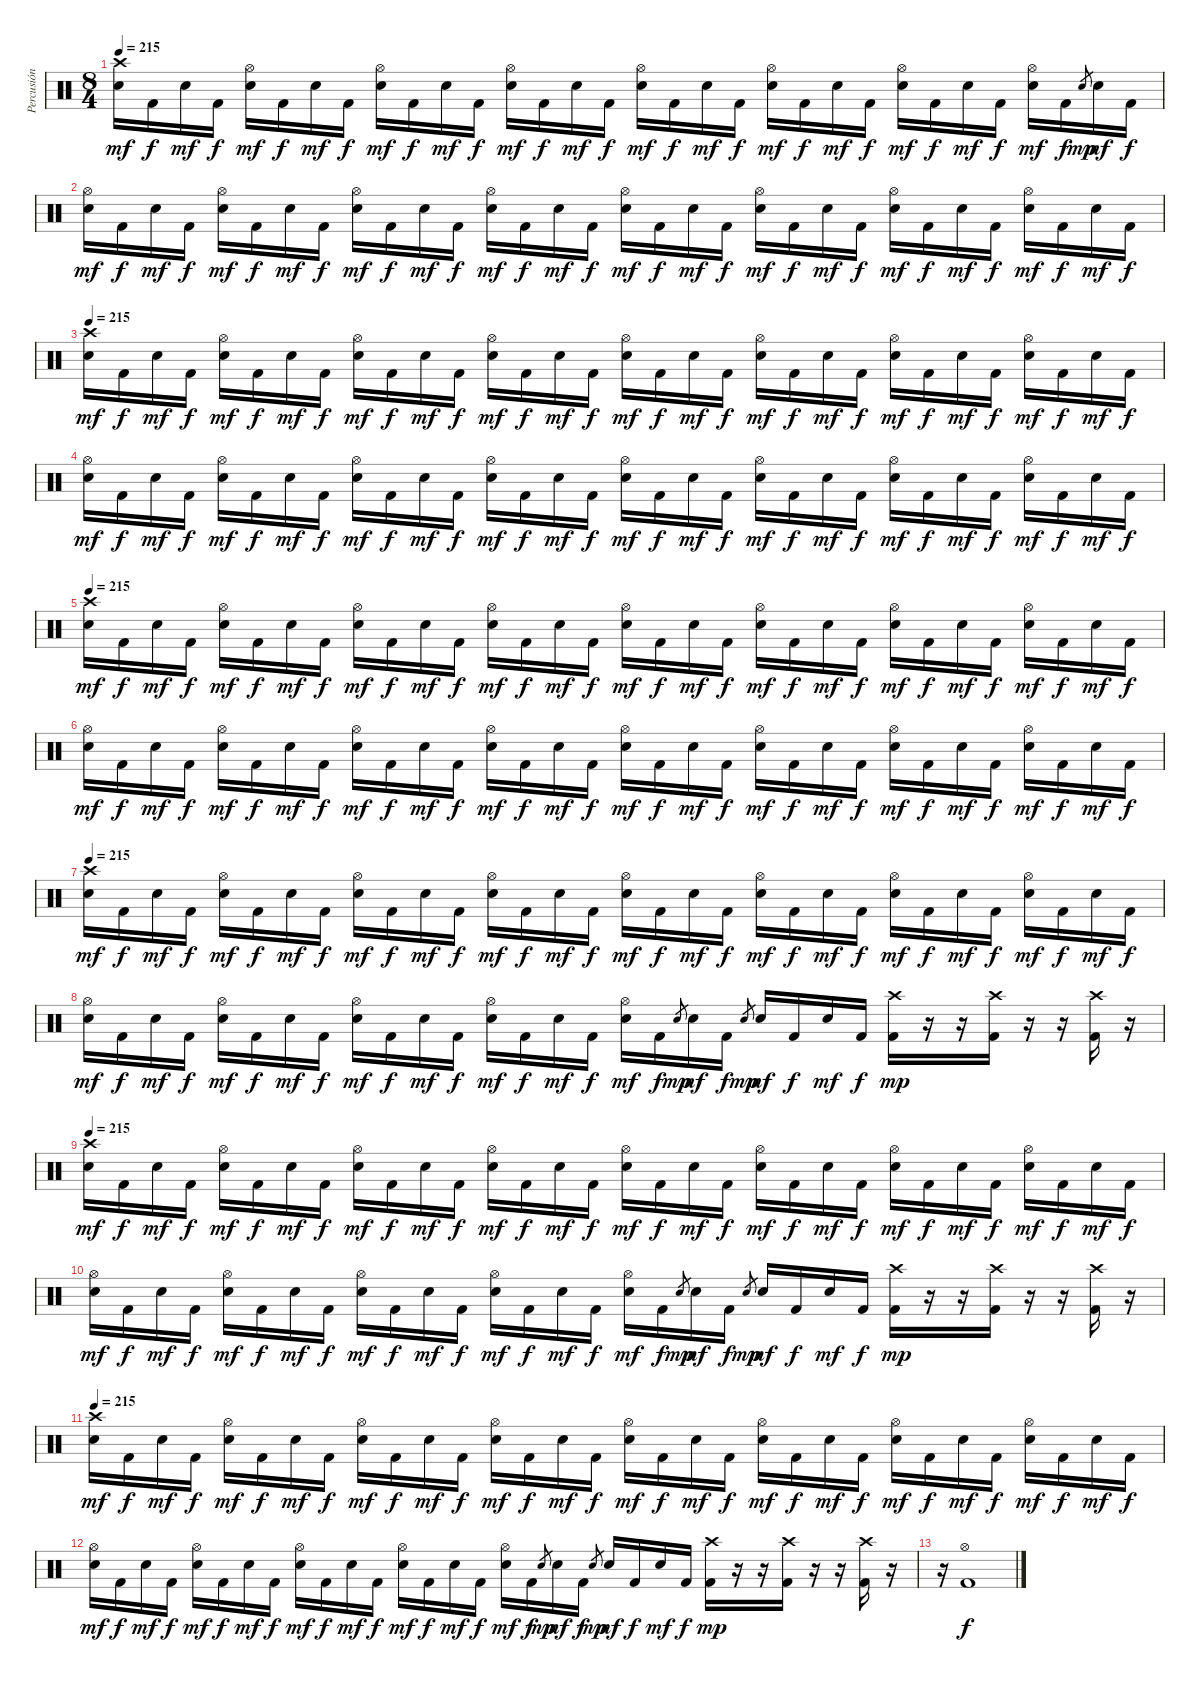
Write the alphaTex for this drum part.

\track ("Percusión" "Percusión") {instrument percussion}
\staff {score}
\articulation defaults
\ts (8 4)
\tempo 215
\clef neutral
\ks c
("Crash high (hit)" "Electric Snare (hit)").16{dy mf} "Kick (hit) 2".16{dy f} "Electric Snare (hit)".16{dy mf} "Kick (hit) 2".16{dy f} ("Hi-Hat (open)" "Electric Snare (hit)").16{dy mf} "Kick (hit) 2".16{dy f} "Electric Snare (hit)".16{dy mf} "Kick (hit) 2".16{dy f} ("Hi-Hat (open)" "Electric Snare (hit)").16{dy mf} "Kick (hit) 2".16{dy f} "Electric Snare (hit)".16{dy mf} "Kick (hit) 2".16{dy f} ("Hi-Hat (open)" "Electric Snare (hit)").16{dy mf} "Kick (hit) 2".16{dy f} "Electric Snare (hit)".16{dy mf} "Kick (hit) 2".16{dy f} ("Hi-Hat (open)" "Electric Snare (hit)").16{dy mf} "Kick (hit) 2".16{dy f} "Electric Snare (hit)".16{dy mf} "Kick (hit) 2".16{dy f} ("Hi-Hat (open)" "Electric Snare (hit)").16{dy mf} "Kick (hit) 2".16{dy f} "Electric Snare (hit)".16{dy mf} "Kick (hit) 2".16{dy f} ("Hi-Hat (open)" "Electric Snare (hit)").16{dy mf} "Kick (hit) 2".16{dy f} "Electric Snare (hit)".16{dy mf} "Kick (hit) 2".16{dy f} ("Hi-Hat (open)" "Electric Snare (hit)").16{dy mf} "Kick (hit) 2".16{dy f} "Electric Snare (hit)".8{gr dy mp} "Electric Snare (hit)".16{dy mf} "Kick (hit) 2".16{dy f} |
("Hi-Hat (open)" "Electric Snare (hit)").16{dy mf} "Kick (hit) 2".16{dy f} "Electric Snare (hit)".16{dy mf} "Kick (hit) 2".16{dy f} ("Hi-Hat (open)" "Electric Snare (hit)").16{dy mf} "Kick (hit) 2".16{dy f} "Electric Snare (hit)".16{dy mf} "Kick (hit) 2".16{dy f} ("Hi-Hat (open)" "Electric Snare (hit)").16{dy mf} "Kick (hit) 2".16{dy f} "Electric Snare (hit)".16{dy mf} "Kick (hit) 2".16{dy f} ("Hi-Hat (open)" "Electric Snare (hit)").16{dy mf} "Kick (hit) 2".16{dy f} "Electric Snare (hit)".16{dy mf} "Kick (hit) 2".16{dy f} ("Hi-Hat (open)" "Electric Snare (hit)").16{dy mf} "Kick (hit) 2".16{dy f} "Electric Snare (hit)".16{dy mf} "Kick (hit) 2".16{dy f} ("Hi-Hat (open)" "Electric Snare (hit)").16{dy mf} "Kick (hit) 2".16{dy f} "Electric Snare (hit)".16{dy mf} "Kick (hit) 2".16{dy f} ("Hi-Hat (open)" "Electric Snare (hit)").16{dy mf} "Kick (hit) 2".16{dy f} "Electric Snare (hit)".16{dy mf} "Kick (hit) 2".16{dy f} ("Hi-Hat (open)" "Electric Snare (hit)").16{dy mf} "Kick (hit) 2".16{dy f} "Electric Snare (hit)".16{dy mf} "Kick (hit) 2".16{dy f} |
\tempo 215
("Crash high (hit)" "Electric Snare (hit)").16{dy mf} "Kick (hit) 2".16{dy f} "Electric Snare (hit)".16{dy mf} "Kick (hit) 2".16{dy f} ("Hi-Hat (open)" "Electric Snare (hit)").16{dy mf} "Kick (hit) 2".16{dy f} "Electric Snare (hit)".16{dy mf} "Kick (hit) 2".16{dy f} ("Hi-Hat (open)" "Electric Snare (hit)").16{dy mf} "Kick (hit) 2".16{dy f} "Electric Snare (hit)".16{dy mf} "Kick (hit) 2".16{dy f} ("Hi-Hat (open)" "Electric Snare (hit)").16{dy mf} "Kick (hit) 2".16{dy f} "Electric Snare (hit)".16{dy mf} "Kick (hit) 2".16{dy f} ("Hi-Hat (open)" "Electric Snare (hit)").16{dy mf} "Kick (hit) 2".16{dy f} "Electric Snare (hit)".16{dy mf} "Kick (hit) 2".16{dy f} ("Hi-Hat (open)" "Electric Snare (hit)").16{dy mf} "Kick (hit) 2".16{dy f} "Electric Snare (hit)".16{dy mf} "Kick (hit) 2".16{dy f} ("Hi-Hat (open)" "Electric Snare (hit)").16{dy mf} "Kick (hit) 2".16{dy f} "Electric Snare (hit)".16{dy mf} "Kick (hit) 2".16{dy f} ("Hi-Hat (open)" "Electric Snare (hit)").16{dy mf} "Kick (hit) 2".16{dy f} "Electric Snare (hit)".16{dy mf} "Kick (hit) 2".16{dy f} |
("Hi-Hat (open)" "Electric Snare (hit)").16{dy mf} "Kick (hit) 2".16{dy f} "Electric Snare (hit)".16{dy mf} "Kick (hit) 2".16{dy f} ("Hi-Hat (open)" "Electric Snare (hit)").16{dy mf} "Kick (hit) 2".16{dy f} "Electric Snare (hit)".16{dy mf} "Kick (hit) 2".16{dy f} ("Hi-Hat (open)" "Electric Snare (hit)").16{dy mf} "Kick (hit) 2".16{dy f} "Electric Snare (hit)".16{dy mf} "Kick (hit) 2".16{dy f} ("Hi-Hat (open)" "Electric Snare (hit)").16{dy mf} "Kick (hit) 2".16{dy f} "Electric Snare (hit)".16{dy mf} "Kick (hit) 2".16{dy f} ("Hi-Hat (open)" "Electric Snare (hit)").16{dy mf} "Kick (hit) 2".16{dy f} "Electric Snare (hit)".16{dy mf} "Kick (hit) 2".16{dy f} ("Hi-Hat (open)" "Electric Snare (hit)").16{dy mf} "Kick (hit) 2".16{dy f} "Electric Snare (hit)".16{dy mf} "Kick (hit) 2".16{dy f} ("Hi-Hat (open)" "Electric Snare (hit)").16{dy mf} "Kick (hit) 2".16{dy f} "Electric Snare (hit)".16{dy mf} "Kick (hit) 2".16{dy f} ("Hi-Hat (open)" "Electric Snare (hit)").16{dy mf} "Kick (hit) 2".16{dy f} "Electric Snare (hit)".16{dy mf} "Kick (hit) 2".16{dy f} |
\tempo 215
("Crash high (hit)" "Electric Snare (hit)").16{dy mf} "Kick (hit) 2".16{dy f} "Electric Snare (hit)".16{dy mf} "Kick (hit) 2".16{dy f} ("Hi-Hat (open)" "Electric Snare (hit)").16{dy mf} "Kick (hit) 2".16{dy f} "Electric Snare (hit)".16{dy mf} "Kick (hit) 2".16{dy f} ("Hi-Hat (open)" "Electric Snare (hit)").16{dy mf} "Kick (hit) 2".16{dy f} "Electric Snare (hit)".16{dy mf} "Kick (hit) 2".16{dy f} ("Hi-Hat (open)" "Electric Snare (hit)").16{dy mf} "Kick (hit) 2".16{dy f} "Electric Snare (hit)".16{dy mf} "Kick (hit) 2".16{dy f} ("Hi-Hat (open)" "Electric Snare (hit)").16{dy mf} "Kick (hit) 2".16{dy f} "Electric Snare (hit)".16{dy mf} "Kick (hit) 2".16{dy f} ("Hi-Hat (open)" "Electric Snare (hit)").16{dy mf} "Kick (hit) 2".16{dy f} "Electric Snare (hit)".16{dy mf} "Kick (hit) 2".16{dy f} ("Hi-Hat (open)" "Electric Snare (hit)").16{dy mf} "Kick (hit) 2".16{dy f} "Electric Snare (hit)".16{dy mf} "Kick (hit) 2".16{dy f} ("Hi-Hat (open)" "Electric Snare (hit)").16{dy mf} "Kick (hit) 2".16{dy f} "Electric Snare (hit)".16{dy mf} "Kick (hit) 2".16{dy f} |
("Hi-Hat (open)" "Electric Snare (hit)").16{dy mf} "Kick (hit) 2".16{dy f} "Electric Snare (hit)".16{dy mf} "Kick (hit) 2".16{dy f} ("Hi-Hat (open)" "Electric Snare (hit)").16{dy mf} "Kick (hit) 2".16{dy f} "Electric Snare (hit)".16{dy mf} "Kick (hit) 2".16{dy f} ("Hi-Hat (open)" "Electric Snare (hit)").16{dy mf} "Kick (hit) 2".16{dy f} "Electric Snare (hit)".16{dy mf} "Kick (hit) 2".16{dy f} ("Hi-Hat (open)" "Electric Snare (hit)").16{dy mf} "Kick (hit) 2".16{dy f} "Electric Snare (hit)".16{dy mf} "Kick (hit) 2".16{dy f} ("Hi-Hat (open)" "Electric Snare (hit)").16{dy mf} "Kick (hit) 2".16{dy f} "Electric Snare (hit)".16{dy mf} "Kick (hit) 2".16{dy f} ("Hi-Hat (open)" "Electric Snare (hit)").16{dy mf} "Kick (hit) 2".16{dy f} "Electric Snare (hit)".16{dy mf} "Kick (hit) 2".16{dy f} ("Hi-Hat (open)" "Electric Snare (hit)").16{dy mf} "Kick (hit) 2".16{dy f} "Electric Snare (hit)".16{dy mf} "Kick (hit) 2".16{dy f} ("Hi-Hat (open)" "Electric Snare (hit)").16{dy mf} "Kick (hit) 2".16{dy f} "Electric Snare (hit)".16{dy mf} "Kick (hit) 2".16{dy f} |
\tempo 215
("Crash high (hit)" "Electric Snare (hit)").16{dy mf} "Kick (hit) 2".16{dy f} "Electric Snare (hit)".16{dy mf} "Kick (hit) 2".16{dy f} ("Hi-Hat (open)" "Electric Snare (hit)").16{dy mf} "Kick (hit) 2".16{dy f} "Electric Snare (hit)".16{dy mf} "Kick (hit) 2".16{dy f} ("Hi-Hat (open)" "Electric Snare (hit)").16{dy mf} "Kick (hit) 2".16{dy f} "Electric Snare (hit)".16{dy mf} "Kick (hit) 2".16{dy f} ("Hi-Hat (open)" "Electric Snare (hit)").16{dy mf} "Kick (hit) 2".16{dy f} "Electric Snare (hit)".16{dy mf} "Kick (hit) 2".16{dy f} ("Hi-Hat (open)" "Electric Snare (hit)").16{dy mf} "Kick (hit) 2".16{dy f} "Electric Snare (hit)".16{dy mf} "Kick (hit) 2".16{dy f} ("Hi-Hat (open)" "Electric Snare (hit)").16{dy mf} "Kick (hit) 2".16{dy f} "Electric Snare (hit)".16{dy mf} "Kick (hit) 2".16{dy f} ("Hi-Hat (open)" "Electric Snare (hit)").16{dy mf} "Kick (hit) 2".16{dy f} "Electric Snare (hit)".16{dy mf} "Kick (hit) 2".16{dy f} ("Hi-Hat (open)" "Electric Snare (hit)").16{dy mf} "Kick (hit) 2".16{dy f} "Electric Snare (hit)".16{dy mf} "Kick (hit) 2".16{dy f} |
("Hi-Hat (open)" "Electric Snare (hit)").16{dy mf} "Kick (hit) 2".16{dy f} "Electric Snare (hit)".16{dy mf} "Kick (hit) 2".16{dy f} ("Hi-Hat (open)" "Electric Snare (hit)").16{dy mf} "Kick (hit) 2".16{dy f} "Electric Snare (hit)".16{dy mf} "Kick (hit) 2".16{dy f} ("Hi-Hat (open)" "Electric Snare (hit)").16{dy mf} "Kick (hit) 2".16{dy f} "Electric Snare (hit)".16{dy mf} "Kick (hit) 2".16{dy f} ("Hi-Hat (open)" "Electric Snare (hit)").16{dy mf} "Kick (hit) 2".16{dy f} "Electric Snare (hit)".16{dy mf} "Kick (hit) 2".16{dy f} ("Hi-Hat (open)" "Electric Snare (hit)").16{dy mf} "Kick (hit) 2".16{dy f} "Electric Snare (hit)".8{gr dy mp} "Electric Snare (hit)".16{dy mf} "Kick (hit) 2".16{dy f} "Electric Snare (hit)".8{gr dy mp} "Electric Snare (hit)".16{dy mf} "Kick (hit) 2".16{dy f} "Electric Snare (hit)".16{dy mf} "Kick (hit) 2".16{dy f} ("Crash high (hit)" "Kick (hit) 2").16{dy mp} r.16 r.16 ("Crash high (hit)" "Kick (hit) 2").16 r.16 r.16 ("Crash high (hit)" "Kick (hit) 2").16 r.16 |
\tempo 215
("Crash high (hit)" "Electric Snare (hit)").16{dy mf} "Kick (hit) 2".16{dy f} "Electric Snare (hit)".16{dy mf} "Kick (hit) 2".16{dy f} ("Hi-Hat (open)" "Electric Snare (hit)").16{dy mf} "Kick (hit) 2".16{dy f} "Electric Snare (hit)".16{dy mf} "Kick (hit) 2".16{dy f} ("Hi-Hat (open)" "Electric Snare (hit)").16{dy mf} "Kick (hit) 2".16{dy f} "Electric Snare (hit)".16{dy mf} "Kick (hit) 2".16{dy f} ("Hi-Hat (open)" "Electric Snare (hit)").16{dy mf} "Kick (hit) 2".16{dy f} "Electric Snare (hit)".16{dy mf} "Kick (hit) 2".16{dy f} ("Hi-Hat (open)" "Electric Snare (hit)").16{dy mf} "Kick (hit) 2".16{dy f} "Electric Snare (hit)".16{dy mf} "Kick (hit) 2".16{dy f} ("Hi-Hat (open)" "Electric Snare (hit)").16{dy mf} "Kick (hit) 2".16{dy f} "Electric Snare (hit)".16{dy mf} "Kick (hit) 2".16{dy f} ("Hi-Hat (open)" "Electric Snare (hit)").16{dy mf} "Kick (hit) 2".16{dy f} "Electric Snare (hit)".16{dy mf} "Kick (hit) 2".16{dy f} ("Hi-Hat (open)" "Electric Snare (hit)").16{dy mf} "Kick (hit) 2".16{dy f} "Electric Snare (hit)".16{dy mf} "Kick (hit) 2".16{dy f} |
("Hi-Hat (open)" "Electric Snare (hit)").16{dy mf} "Kick (hit) 2".16{dy f} "Electric Snare (hit)".16{dy mf} "Kick (hit) 2".16{dy f} ("Hi-Hat (open)" "Electric Snare (hit)").16{dy mf} "Kick (hit) 2".16{dy f} "Electric Snare (hit)".16{dy mf} "Kick (hit) 2".16{dy f} ("Hi-Hat (open)" "Electric Snare (hit)").16{dy mf} "Kick (hit) 2".16{dy f} "Electric Snare (hit)".16{dy mf} "Kick (hit) 2".16{dy f} ("Hi-Hat (open)" "Electric Snare (hit)").16{dy mf} "Kick (hit) 2".16{dy f} "Electric Snare (hit)".16{dy mf} "Kick (hit) 2".16{dy f} ("Hi-Hat (open)" "Electric Snare (hit)").16{dy mf} "Kick (hit) 2".16{dy f} "Electric Snare (hit)".8{gr dy mp} "Electric Snare (hit)".16{dy mf} "Kick (hit) 2".16{dy f} "Electric Snare (hit)".8{gr dy mp} "Electric Snare (hit)".16{dy mf} "Kick (hit) 2".16{dy f} "Electric Snare (hit)".16{dy mf} "Kick (hit) 2".16{dy f} ("Crash high (hit)" "Kick (hit) 2").16{dy mp} r.16 r.16 ("Crash high (hit)" "Kick (hit) 2").16 r.16 r.16 ("Crash high (hit)" "Kick (hit) 2").16 r.16 |
\tempo 215
("Crash high (hit)" "Electric Snare (hit)").16{dy mf} "Kick (hit) 2".16{dy f} "Electric Snare (hit)".16{dy mf} "Kick (hit) 2".16{dy f} ("Hi-Hat (open)" "Electric Snare (hit)").16{dy mf} "Kick (hit) 2".16{dy f} "Electric Snare (hit)".16{dy mf} "Kick (hit) 2".16{dy f} ("Hi-Hat (open)" "Electric Snare (hit)").16{dy mf} "Kick (hit) 2".16{dy f} "Electric Snare (hit)".16{dy mf} "Kick (hit) 2".16{dy f} ("Hi-Hat (open)" "Electric Snare (hit)").16{dy mf} "Kick (hit) 2".16{dy f} "Electric Snare (hit)".16{dy mf} "Kick (hit) 2".16{dy f} ("Hi-Hat (open)" "Electric Snare (hit)").16{dy mf} "Kick (hit) 2".16{dy f} "Electric Snare (hit)".16{dy mf} "Kick (hit) 2".16{dy f} ("Hi-Hat (open)" "Electric Snare (hit)").16{dy mf} "Kick (hit) 2".16{dy f} "Electric Snare (hit)".16{dy mf} "Kick (hit) 2".16{dy f} ("Hi-Hat (open)" "Electric Snare (hit)").16{dy mf} "Kick (hit) 2".16{dy f} "Electric Snare (hit)".16{dy mf} "Kick (hit) 2".16{dy f} ("Hi-Hat (open)" "Electric Snare (hit)").16{dy mf} "Kick (hit) 2".16{dy f} "Electric Snare (hit)".16{dy mf} "Kick (hit) 2".16{dy f} |
("Hi-Hat (open)" "Electric Snare (hit)").16{dy mf} "Kick (hit) 2".16{dy f} "Electric Snare (hit)".16{dy mf} "Kick (hit) 2".16{dy f} ("Hi-Hat (open)" "Electric Snare (hit)").16{dy mf} "Kick (hit) 2".16{dy f} "Electric Snare (hit)".16{dy mf} "Kick (hit) 2".16{dy f} ("Hi-Hat (open)" "Electric Snare (hit)").16{dy mf} "Kick (hit) 2".16{dy f} "Electric Snare (hit)".16{dy mf} "Kick (hit) 2".16{dy f} ("Hi-Hat (open)" "Electric Snare (hit)").16{dy mf} "Kick (hit) 2".16{dy f} "Electric Snare (hit)".16{dy mf} "Kick (hit) 2".16{dy f} ("Hi-Hat (open)" "Electric Snare (hit)").16{dy mf} "Kick (hit) 2".16{dy f} "Electric Snare (hit)".8{gr dy mp} "Electric Snare (hit)".16{dy mf} "Kick (hit) 2".16{dy f} "Electric Snare (hit)".8{gr dy mp} "Electric Snare (hit)".16{dy mf} "Kick (hit) 2".16{dy f} "Electric Snare (hit)".16{dy mf} "Kick (hit) 2".16{dy f} ("Crash high (hit)" "Kick (hit) 2").16{dy mp} r.16 r.16 ("Crash high (hit)" "Kick (hit) 2").16 r.16 r.16 ("Crash high (hit)" "Kick (hit) 2").16 r.16 |
r.16 ("Hi-Hat (open)" "Kick (hit) 2").1{dy f}
